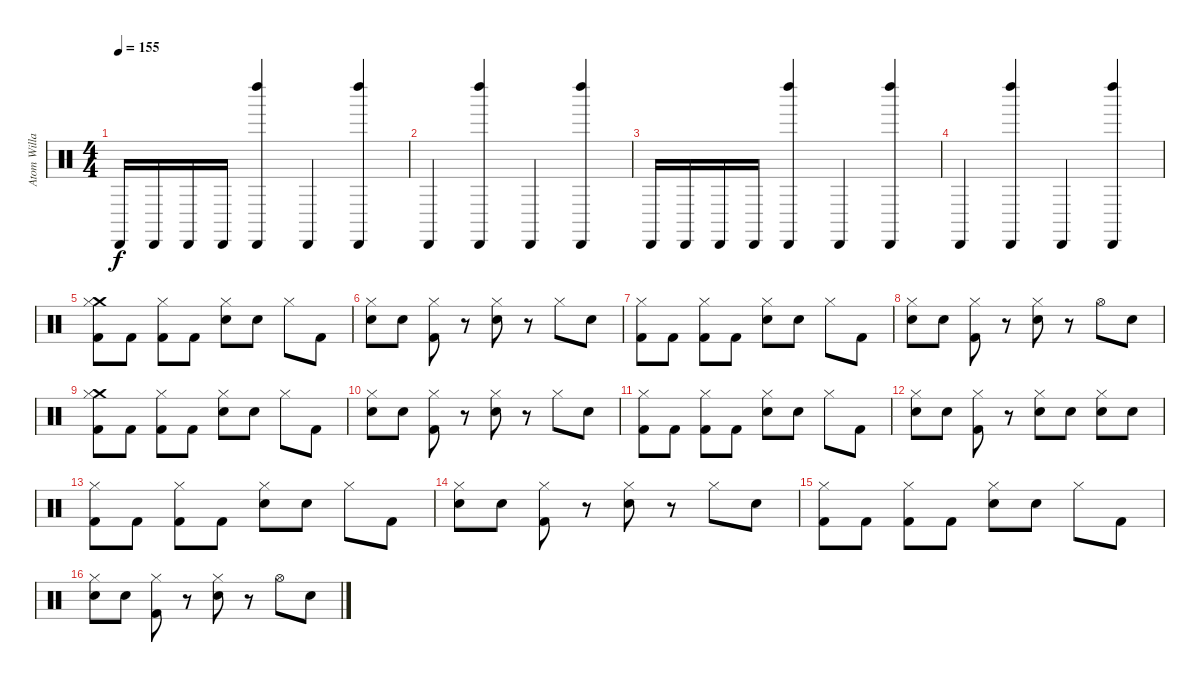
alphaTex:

\track ("Atom Willard - Drums" "Atom Willa") {instrument percussion}
\staff {score}
\articulation defaults
\ts (4 4)
\tempo 155
\clef neutral
\ks c "Cabasa (hit)".16{dy f} "Cabasa (hit)".16 "Cabasa (hit)".16 "Cabasa (hit)".16
("Cabasa (hit)" "Left Maraca (hit)").4 "Cabasa (hit)".4 ("Cabasa (hit)" "Left Maraca (hit)").4 |
"Cabasa (hit)".4 ("Cabasa (hit)" "Left Maraca (hit)").4 "Cabasa (hit)".4 ("Cabasa (hit)" "Left Maraca (hit)").4 |
"Cabasa (hit)".16 "Cabasa (hit)".16 "Cabasa (hit)".16 "Cabasa (hit)".16 ("Cabasa (hit)" "Left Maraca (hit)").4 "Cabasa (hit)".4 ("Cabasa (hit)" "Left Maraca (hit)").4 |
"Cabasa (hit)".4 ("Cabasa (hit)" "Left Maraca (hit)").4 "Cabasa (hit)".4 ("Cabasa (hit)" "Left Maraca (hit)").4 |
("Crash medium (hit)" "Kick (hit) 2" "Hi-Hat (closed)").8 "Kick (hit) 2".8 ("Kick (hit) 2" "Hi-Hat (closed)").8 "Kick (hit) 2".8 ("Electric Snare (hit)" "Hi-Hat (closed)").8 "Snare (hit)".8 "Hi-Hat (closed)".8 "Kick (hit) 2".8 |
("Snare (hit)" "Hi-Hat (closed)").8 "Electric Snare (hit)".8 ("Kick (hit) 2" "Hi-Hat (closed)").8 r.8 ("Electric Snare (hit)" "Hi-Hat (closed)").8 r.8 "Hi-Hat (closed)".8 "Snare (hit)".8 |
("Kick (hit) 2" "Hi-Hat (closed)").8 "Kick (hit) 2".8 ("Kick (hit) 2" "Hi-Hat (closed)").8 "Kick (hit) 2".8 ("Electric Snare (hit)" "Hi-Hat (closed)").8 "Snare (hit)".8 "Hi-Hat (closed)".8 "Kick (hit) 2".8 |
("Snare (hit)" "Hi-Hat (closed)").8 "Electric Snare (hit)".8 ("Kick (hit) 2" "Hi-Hat (closed)").8 r.8 ("Electric Snare (hit)" "Hi-Hat (closed)").8 r.8 "Hi-Hat (open)".8 "Snare (hit)".8 |
("Crash medium (hit)" "Kick (hit) 2" "Hi-Hat (closed)").8 "Kick (hit) 2".8 ("Kick (hit) 2" "Hi-Hat (closed)").8 "Kick (hit) 2".8 ("Electric Snare (hit)" "Hi-Hat (closed)").8 "Snare (hit)".8 "Hi-Hat (closed)".8 "Kick (hit) 2".8 |
("Snare (hit)" "Hi-Hat (closed)").8 "Electric Snare (hit)".8 ("Kick (hit) 2" "Hi-Hat (closed)").8 r.8 ("Electric Snare (hit)" "Hi-Hat (closed)").8 r.8 "Hi-Hat (closed)".8 "Snare (hit)".8 |
("Kick (hit) 2" "Hi-Hat (closed)").8 "Kick (hit) 2".8 ("Kick (hit) 2" "Hi-Hat (closed)").8 "Kick (hit) 2".8 ("Electric Snare (hit)" "Hi-Hat (closed)").8 "Snare (hit)".8 "Hi-Hat (closed)".8 "Kick (hit) 2".8 |
("Snare (hit)" "Hi-Hat (closed)").8 "Electric Snare (hit)".8 ("Kick (hit) 2" "Hi-Hat (closed)").8 r.8 ("Electric Snare (hit)" "Hi-Hat (closed)").8 "Electric Snare (hit)".8 ("Electric Snare (hit)" "Hi-Hat (closed)").8 "Snare (hit)".8 |
("Kick (hit) 2" "Hi-Hat (closed)").8 "Kick (hit) 2".8 ("Kick (hit) 2" "Hi-Hat (closed)").8 "Kick (hit) 2".8 ("Electric Snare (hit)" "Hi-Hat (closed)").8 "Snare (hit)".8 "Hi-Hat (closed)".8 "Kick (hit) 2".8 |
("Snare (hit)" "Hi-Hat (closed)").8 "Electric Snare (hit)".8 ("Kick (hit) 2" "Hi-Hat (closed)").8 r.8 ("Electric Snare (hit)" "Hi-Hat (closed)").8 r.8 "Hi-Hat (closed)".8 "Snare (hit)".8 |
("Kick (hit) 2" "Hi-Hat (closed)").8 "Kick (hit) 2".8 ("Kick (hit) 2" "Hi-Hat (closed)").8 "Kick (hit) 2".8 ("Electric Snare (hit)" "Hi-Hat (closed)").8 "Snare (hit)".8 "Hi-Hat (closed)".8 "Kick (hit) 2".8 |
("Snare (hit)" "Hi-Hat (closed)").8 "Electric Snare (hit)".8 ("Kick (hit) 2" "Hi-Hat (closed)").8 r.8 ("Electric Snare (hit)" "Hi-Hat (closed)").8 r.8 "Hi-Hat (open)".8 "Snare (hit)".8
